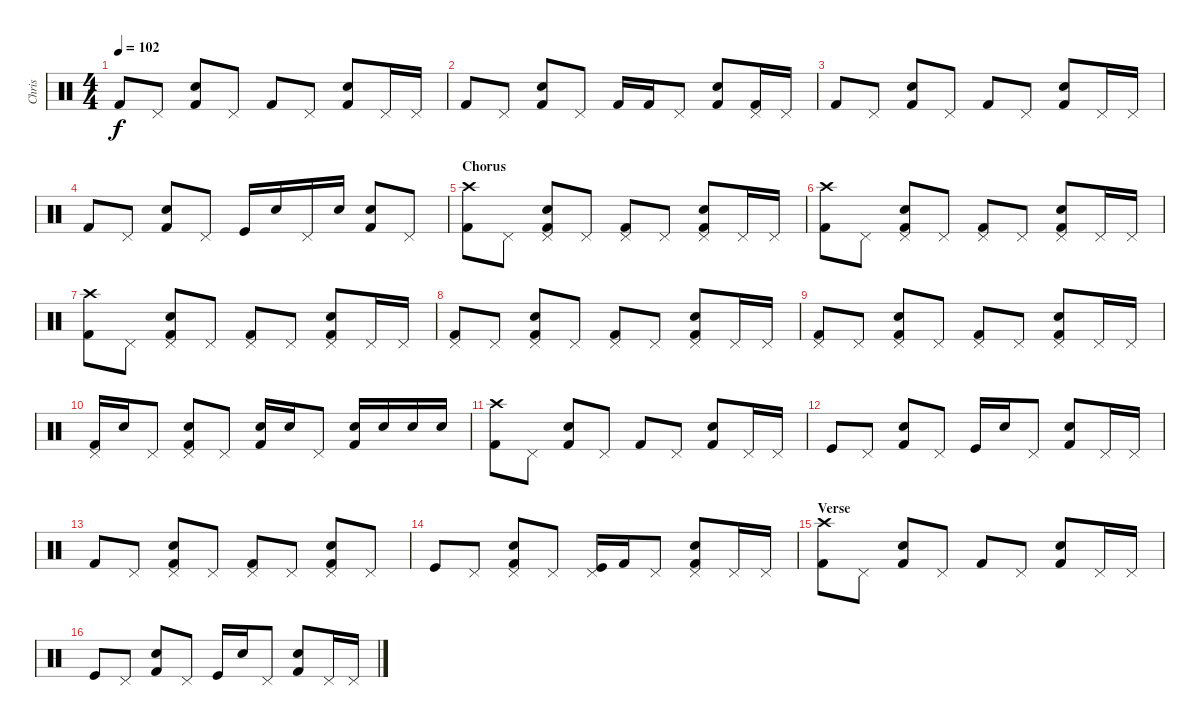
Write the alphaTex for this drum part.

\track ("Chris" "Chris") {instrument percussion}
\staff {score}
\articulation defaults
\ts (4 4)
\tempo 102
\clef neutral
\ks c "Kick (hit) 2".8{dy f} "Pedal Hi-Hat (hit)".8
("Snare (hit) 2" "Kick (hit) 2").8 "Pedal Hi-Hat (hit)".8 "Kick (hit) 2".8 "Pedal Hi-Hat (hit)".8 ("Snare (hit) 2" "Kick (hit) 2").8 "Pedal Hi-Hat (hit)".16 "Pedal Hi-Hat (hit)".16 |
"Kick (hit) 2".8 "Pedal Hi-Hat (hit)".8 ("Snare (hit) 2" "Kick (hit) 2").8 "Pedal Hi-Hat (hit)".8 "Kick (hit) 2".16 "Kick (hit) 2".16 "Pedal Hi-Hat (hit)".8 ("Snare (hit) 2" "Kick (hit) 2").8 ("Pedal Hi-Hat (hit)" "Kick (hit) 2").16 "Pedal Hi-Hat (hit)".16 |
"Kick (hit) 2".8 "Pedal Hi-Hat (hit)".8 ("Snare (hit) 2" "Kick (hit) 2").8 "Pedal Hi-Hat (hit)".8 "Kick (hit) 2".8 "Pedal Hi-Hat (hit)".8 ("Snare (hit) 2" "Kick (hit) 2").8 "Pedal Hi-Hat (hit)".16 "Pedal Hi-Hat (hit)".16 |
"Kick (hit) 2".8 "Pedal Hi-Hat (hit)".8 ("Snare (hit) 2" "Kick (hit) 2").8 "Pedal Hi-Hat (hit)".8 "Kick (hit)".16 "Snare (hit) 2".16 "Pedal Hi-Hat (hit)".16 "Snare (hit) 2".16 ("Snare (hit) 2" "Kick (hit) 2").8 "Pedal Hi-Hat (hit)".8 |
\section ("" "Chorus")
("Crash high (hit)" "Kick (hit) 2").8 "Pedal Hi-Hat (hit)".8 ("Pedal Hi-Hat (hit)" "Snare (hit) 2" "Kick (hit) 2").8 "Pedal Hi-Hat (hit)".8 ("Pedal Hi-Hat (hit)" "Kick (hit) 2").8 "Pedal Hi-Hat (hit)".8 ("Pedal Hi-Hat (hit)" "Snare (hit) 2" "Kick (hit) 2").8 "Pedal Hi-Hat (hit)".16 "Pedal Hi-Hat (hit)".16 |
("Crash high (hit)" "Kick (hit) 2").8 "Pedal Hi-Hat (hit)".8 ("Pedal Hi-Hat (hit)" "Snare (hit) 2" "Kick (hit) 2").8 "Pedal Hi-Hat (hit)".8 ("Pedal Hi-Hat (hit)" "Kick (hit) 2").8 "Pedal Hi-Hat (hit)".8 ("Pedal Hi-Hat (hit)" "Snare (hit) 2" "Kick (hit) 2").8 "Pedal Hi-Hat (hit)".16 "Pedal Hi-Hat (hit)".16 |
("Crash high (hit)" "Kick (hit) 2").8 "Pedal Hi-Hat (hit)".8 ("Pedal Hi-Hat (hit)" "Snare (hit) 2" "Kick (hit) 2").8 "Pedal Hi-Hat (hit)".8 ("Pedal Hi-Hat (hit)" "Kick (hit) 2").8 "Pedal Hi-Hat (hit)".8 ("Pedal Hi-Hat (hit)" "Snare (hit) 2" "Kick (hit) 2").8 "Pedal Hi-Hat (hit)".16 "Pedal Hi-Hat (hit)".16 |
("Pedal Hi-Hat (hit)" "Kick (hit) 2").8 "Pedal Hi-Hat (hit)".8 ("Pedal Hi-Hat (hit)" "Snare (hit) 2" "Kick (hit) 2").8 "Pedal Hi-Hat (hit)".8 ("Pedal Hi-Hat (hit)" "Kick (hit) 2").8 "Pedal Hi-Hat (hit)".8 ("Pedal Hi-Hat (hit)" "Snare (hit) 2" "Kick (hit) 2").8 "Pedal Hi-Hat (hit)".16 "Pedal Hi-Hat (hit)".16 |
("Pedal Hi-Hat (hit)" "Kick (hit) 2").8 "Pedal Hi-Hat (hit)".8 ("Pedal Hi-Hat (hit)" "Snare (hit) 2" "Kick (hit) 2").8 "Pedal Hi-Hat (hit)".8 ("Pedal Hi-Hat (hit)" "Kick (hit) 2").8 "Pedal Hi-Hat (hit)".8 ("Pedal Hi-Hat (hit)" "Snare (hit) 2" "Kick (hit) 2").8 "Pedal Hi-Hat (hit)".16 "Pedal Hi-Hat (hit)".16 |
("Pedal Hi-Hat (hit)" "Kick (hit) 2").16 "Snare (hit) 2".16 "Pedal Hi-Hat (hit)".8 ("Pedal Hi-Hat (hit)" "Snare (hit) 2" "Kick (hit) 2").8 "Pedal Hi-Hat (hit)".8 ("Snare (hit) 2" "Kick (hit) 2").16 "Snare (hit) 2".16 "Pedal Hi-Hat (hit)".8 ("Snare (hit) 2" "Kick (hit) 2").16 "Snare (hit) 2".16 "Snare (hit) 2".16 "Snare (hit) 2".16 |
("Crash high (hit)" "Kick (hit) 2").8 "Pedal Hi-Hat (hit)".8 ("Snare (hit) 2" "Kick (hit) 2").8 "Pedal Hi-Hat (hit)".8 "Kick (hit) 2".8 "Pedal Hi-Hat (hit)".8 ("Snare (hit) 2" "Kick (hit) 2").8 "Pedal Hi-Hat (hit)".16 "Pedal Hi-Hat (hit)".16 |
"Kick (hit)".8 "Pedal Hi-Hat (hit)".8 ("Snare (hit) 2" "Kick (hit) 2").8 "Pedal Hi-Hat (hit)".8 "Kick (hit)".16 "Snare (hit) 2".16 "Pedal Hi-Hat (hit)".8 ("Snare (hit) 2" "Kick (hit) 2").8 "Pedal Hi-Hat (hit)".16 "Pedal Hi-Hat (hit)".16 |
"Kick (hit) 2".8 "Pedal Hi-Hat (hit)".8 ("Pedal Hi-Hat (hit)" "Snare (hit) 2" "Kick (hit) 2").8 "Pedal Hi-Hat (hit)".8 ("Pedal Hi-Hat (hit)" "Kick (hit) 2").8 "Pedal Hi-Hat (hit)".8 ("Pedal Hi-Hat (hit)" "Snare (hit) 2" "Kick (hit) 2").8 "Pedal Hi-Hat (hit)".8 |
"Kick (hit)".8 "Pedal Hi-Hat (hit)".8 ("Pedal Hi-Hat (hit)" "Snare (hit) 2" "Kick (hit) 2").8 "Pedal Hi-Hat (hit)".8 ("Pedal Hi-Hat (hit)" "Kick (hit)").16 "Kick (hit) 2".16 "Pedal Hi-Hat (hit)".8 ("Pedal Hi-Hat (hit)" "Kick (hit) 2" "Snare (hit) 2").8 "Pedal Hi-Hat (hit)".16 "Pedal Hi-Hat (hit)".16 |
\section ("" "Verse")
("Crash high (hit)" "Kick (hit) 2").8 "Pedal Hi-Hat (hit)".8 ("Snare (hit) 2" "Kick (hit) 2").8 "Pedal Hi-Hat (hit)".8 "Kick (hit) 2".8 "Pedal Hi-Hat (hit)".8 ("Snare (hit) 2" "Kick (hit) 2").8 "Pedal Hi-Hat (hit)".16 "Pedal Hi-Hat (hit)".16 |
"Kick (hit)".8 "Pedal Hi-Hat (hit)".8 ("Snare (hit) 2" "Kick (hit) 2").8 "Pedal Hi-Hat (hit)".8 "Kick (hit)".16 "Snare (hit) 2".16 "Pedal Hi-Hat (hit)".8 ("Snare (hit) 2" "Kick (hit) 2").8 "Pedal Hi-Hat (hit)".16 "Pedal Hi-Hat (hit)".16
